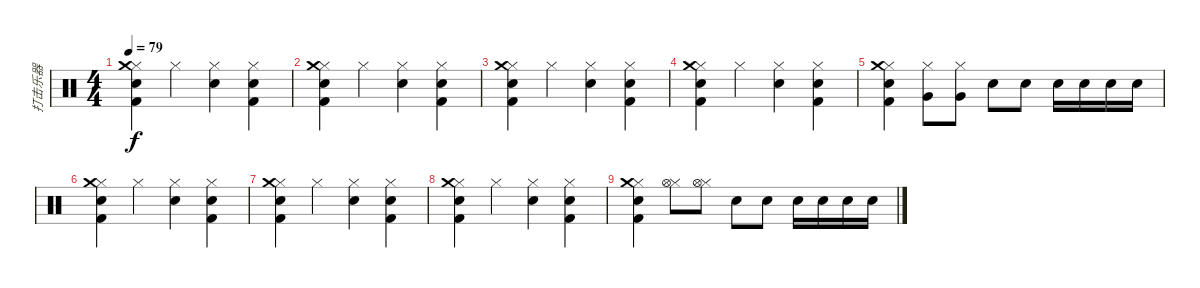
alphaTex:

\track ("打击乐器" "打击乐器") {instrument percussion}
\staff {score}
\articulation defaults
\ts (4 4)
\tempo 79
\clef neutral
\ks c
("Hi-Hat (closed)" "Snare (hit) 2" "Kick (hit) 2" "Crash medium (hit)").4{dy f} "Hi-Hat (closed)".4 ("Hi-Hat (closed)" "Hand Clap (hit)").4 ("Hi-Hat (closed)" "Snare (hit) 2" "Kick (hit) 2").4 |
("Hi-Hat (closed)" "Snare (hit) 2" "Kick (hit) 2" "Crash medium (hit)").4 "Hi-Hat (closed)".4 ("Hi-Hat (closed)" "Hand Clap (hit)").4 ("Hi-Hat (closed)" "Snare (hit) 2" "Kick (hit) 2").4 |
("Hi-Hat (closed)" "Snare (hit) 2" "Kick (hit) 2" "Crash medium (hit)").4 "Hi-Hat (closed)".4 ("Hi-Hat (closed)" "Hand Clap (hit)").4 ("Hi-Hat (closed)" "Snare (hit) 2" "Kick (hit) 2").4 |
("Hi-Hat (closed)" "Snare (hit) 2" "Kick (hit) 2" "Crash medium (hit)").4 "Hi-Hat (closed)".4 ("Hi-Hat (closed)" "Hand Clap (hit)").4 ("Hi-Hat (closed)" "Snare (hit) 2" "Kick (hit) 2").4 |
("Hi-Hat (closed)" "Snare (hit) 2" "Kick (hit) 2" "Crash medium (hit)").4 ("Hi-Hat (closed)" "Very Low Tom (hit)").8 ("Hi-Hat (closed)" "Very Low Tom (hit)").8 "Snare (hit) 2".8 "Snare (hit) 2".8 "Electric Snare (hit)".16 "Electric Snare (hit)".16 "Electric Snare (hit)".16 "Electric Snare (hit)".16 |
("Hi-Hat (closed)" "Snare (hit) 2" "Kick (hit) 2" "Crash medium (hit)").4 "Hi-Hat (closed)".4 ("Hi-Hat (closed)" "Hand Clap (hit)").4 ("Hi-Hat (closed)" "Snare (hit) 2" "Kick (hit) 2").4 |
("Hi-Hat (closed)" "Snare (hit) 2" "Kick (hit) 2" "Crash medium (hit)").4 "Hi-Hat (closed)".4 ("Hi-Hat (closed)" "Hand Clap (hit)").4 ("Hi-Hat (closed)" "Snare (hit) 2" "Kick (hit) 2").4 |
("Hi-Hat (closed)" "Snare (hit) 2" "Kick (hit) 2" "Crash medium (hit)").4 "Hi-Hat (closed)".4 ("Hi-Hat (closed)" "Hand Clap (hit)").4 ("Hi-Hat (closed)" "Snare (hit) 2" "Kick (hit) 2").4 |
("Hi-Hat (closed)" "Snare (hit) 2" "Kick (hit) 2" "Crash medium (hit)").4 ("Hi-Hat (closed)" "Hi-Hat (open)").8 ("Hi-Hat (closed)" "Hi-Hat (open)").8 "Electric Snare (hit)".8 "Electric Snare (hit)".8 "Snare (hit) 2".16 "Snare (hit) 2".16 "Snare (hit) 2".16 "Snare (hit) 2".16
